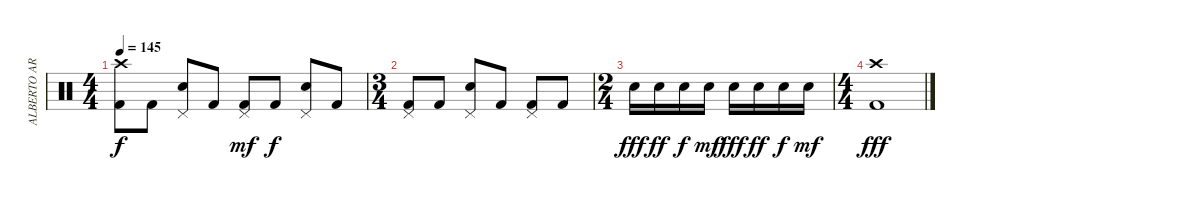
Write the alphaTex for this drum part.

\track ("ALBERTO ARDINES" "ALBERTO AR") {instrument percussion}
\staff {score}
\articulation defaults
\ts (4 4)
\tempo 145
\clef neutral
\ks c
("Crash high (hit)" "Kick (hit) 2").8{dy f} "Kick (hit) 2".8 ("Pedal Hi-Hat (hit)" "Electric Snare (hit)").8 "Kick (hit) 2".8 ("Pedal Hi-Hat (hit)" "Kick (hit) 2").8{dy mf} "Kick (hit) 2".8{dy f} ("Pedal Hi-Hat (hit)" "Electric Snare (hit)").8 "Kick (hit) 2".8 |
\ts (3 4)
("Pedal Hi-Hat (hit)" "Kick (hit) 2").8 "Kick (hit) 2".8 ("Pedal Hi-Hat (hit)" "Electric Snare (hit)").8 "Kick (hit) 2".8 ("Pedal Hi-Hat (hit)" "Kick (hit) 2").8 "Kick (hit) 2".8 |
\ts (2 4)
"Electric Snare (hit)".16{dy fff} "Electric Snare (hit)".16{dy ff} "Electric Snare (hit)".16{dy f} "Electric Snare (hit)".16{dy mf} "Electric Snare (hit)".16{dy fff} "Electric Snare (hit)".16{dy ff} "Electric Snare (hit)".16{dy f} "Electric Snare (hit)".16{dy mf} |
\ts (4 4)
("Crash high (hit)" "Kick (hit) 2").1{dy fff}
